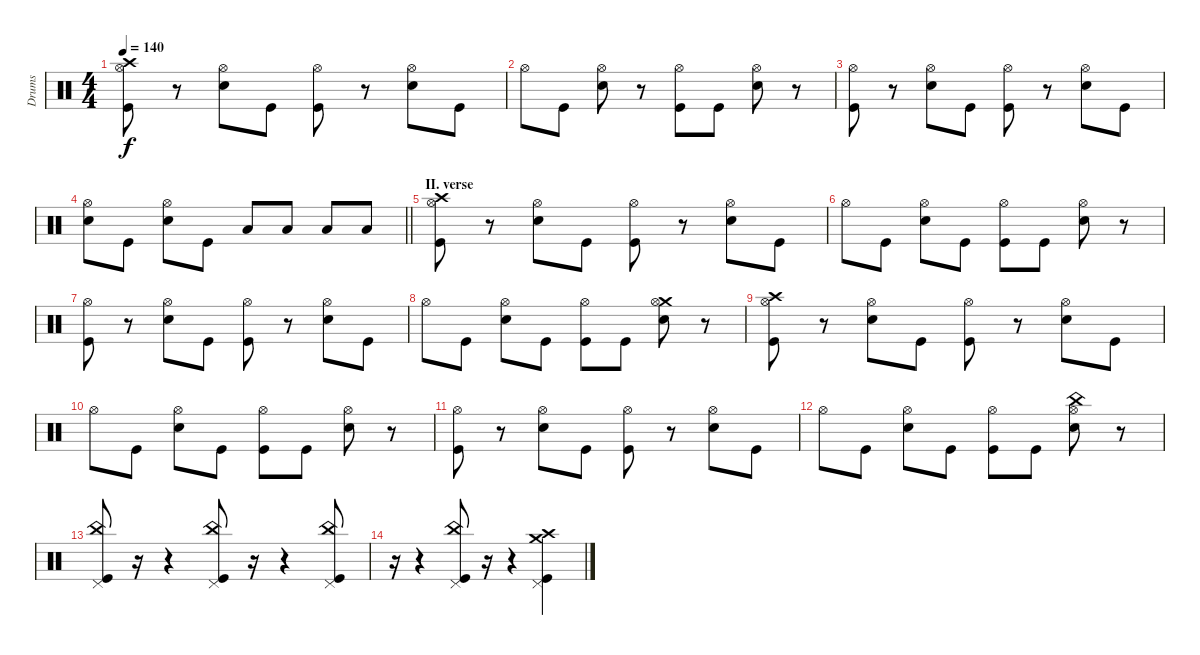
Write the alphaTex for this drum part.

\track ("Drums" "Drums") {instrument percussion}
\staff {score}
\articulation defaults
\ts (4 4)
\tempo 140
\clef neutral
\ks c
("Crash high (hit)" "Hi-Hat (open)" "Kick (hit)").8{dy f} r.8 ("Hi-Hat (open)" "Snare (hit) 2").8 "Kick (hit)".8 ("Hi-Hat (open)" "Kick (hit)").8 r.8 ("Hi-Hat (open)" "Snare (hit) 2").8 "Kick (hit)".8 |
"Hi-Hat (open)".8 "Kick (hit)".8 ("Hi-Hat (open)" "Snare (hit) 2").8 r.8 ("Hi-Hat (open)" "Kick (hit)").8 "Kick (hit)".8 ("Hi-Hat (open)" "Snare (hit) 2").8 r.8 |
("Hi-Hat (open)" "Kick (hit)").8 r.8 ("Hi-Hat (open)" "Snare (hit) 2").8 "Kick (hit)".8 ("Hi-Hat (open)" "Kick (hit)").8 r.8 ("Hi-Hat (open)" "Snare (hit) 2").8 "Kick (hit)".8 |
\barLineRight lightlight
("Hi-Hat (open)" "Snare (hit) 2").8 "Kick (hit)".8 ("Hi-Hat (open)" "Snare (hit) 2").8 "Kick (hit)".8 "Low Floor Tom (hit)".8 "Low Floor Tom (hit)".8 "Low Tom (hit)".8 "Low Tom (hit)".8 |
\section ("" "II. verse")
("Crash high (hit)" "Hi-Hat (open)" "Kick (hit)").8 r.8 ("Hi-Hat (open)" "Snare (hit) 2").8 "Kick (hit)".8 ("Hi-Hat (open)" "Kick (hit)").8 r.8 ("Hi-Hat (open)" "Snare (hit) 2").8 "Kick (hit)".8 |
"Hi-Hat (open)".8 "Kick (hit)".8 ("Hi-Hat (open)" "Snare (hit) 2").8 "Kick (hit)".8 ("Hi-Hat (open)" "Kick (hit)").8 "Kick (hit)".8 ("Hi-Hat (open)" "Snare (hit) 2").8 r.8 |
("Hi-Hat (open)" "Kick (hit)").8 r.8 ("Hi-Hat (open)" "Snare (hit) 2").8 "Kick (hit)".8 ("Hi-Hat (open)" "Kick (hit)").8 r.8 ("Hi-Hat (open)" "Snare (hit) 2").8 "Kick (hit)".8 |
"Hi-Hat (open)".8 "Kick (hit)".8 ("Hi-Hat (open)" "Snare (hit) 2").8 "Kick (hit)".8 ("Hi-Hat (open)" "Kick (hit)").8 "Kick (hit)".8 ("Crash medium (hit)" "Hi-Hat (open)" "Snare (hit) 2").8 r.8 |
("Crash high (hit)" "Hi-Hat (open)" "Kick (hit)").8 r.8 ("Hi-Hat (open)" "Snare (hit) 2").8 "Kick (hit)".8 ("Hi-Hat (open)" "Kick (hit)").8 r.8 ("Hi-Hat (open)" "Snare (hit) 2").8 "Kick (hit)".8 |
"Hi-Hat (open)".8 "Kick (hit)".8 ("Hi-Hat (open)" "Snare (hit) 2").8 "Kick (hit)".8 ("Hi-Hat (open)" "Kick (hit)").8 "Kick (hit)".8 ("Hi-Hat (open)" "Snare (hit) 2").8 r.8 |
("Hi-Hat (open)" "Kick (hit)").8 r.8 ("Hi-Hat (open)" "Snare (hit) 2").8 "Kick (hit)".8 ("Hi-Hat (open)" "Kick (hit)").8 r.8 ("Hi-Hat (open)" "Snare (hit) 2").8 "Kick (hit)".8 |
"Hi-Hat (open)".8 "Kick (hit)".8 ("Hi-Hat (open)" "Snare (hit) 2").8 "Kick (hit)".8 ("Hi-Hat (open)" "Kick (hit)").8 "Kick (hit)".8 ("China (hit)" "Hi-Hat (open)" "Snare (hit) 2").8 r.8 |
("China (hit)" "Pedal Hi-Hat (hit)" "Kick (hit)").8 r.16 r.4 ("China (hit)" "Pedal Hi-Hat (hit)" "Kick (hit)").8 r.16 r.4 ("China (hit)" "Pedal Hi-Hat (hit)" "Kick (hit)").8 |
r.16 r.4 ("China (hit)" "Pedal Hi-Hat (hit)" "Kick (hit)").8 r.16 r.4 ("Crash high (hit)" "Crash medium (hit)" "Pedal Hi-Hat (hit)" "Kick (hit)").4
